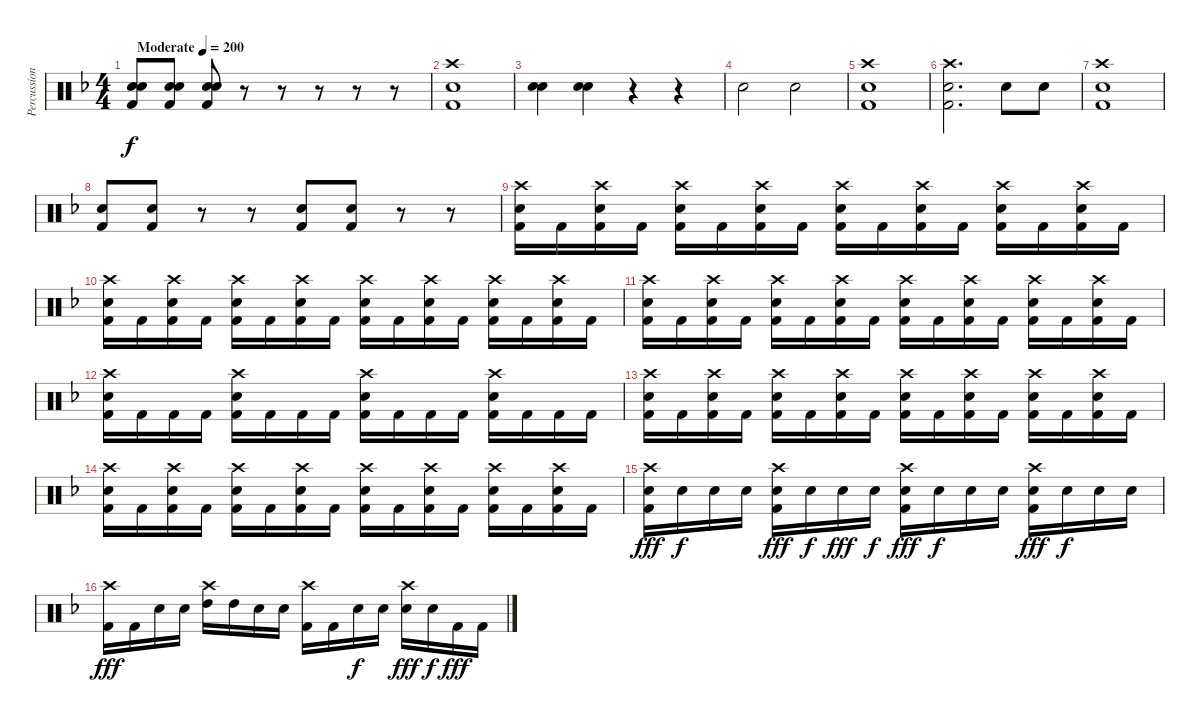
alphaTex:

\track ("Percussion" "Percussion") {instrument percussion}
\staff {score}
\articulation defaults
\ts (4 4)
\tempo (200 "Moderate")
\clef neutral
\ks f
("Electric Snare (hit)" "Electric Snare (hit)" "Kick (hit) 2").8{dy f} ("Electric Snare (hit)" "Electric Snare (hit)" "Kick (hit) 2").8 ("Electric Snare (hit)" "Electric Snare (hit)" "Kick (hit) 2").8 r.8 r.8 r.8 r.8 r.8 |
("Crash high (hit)" "Kick (hit) 2" "Electric Snare (hit)").1 |
("Electric Snare (hit)" "Electric Snare (hit)").4 ("Electric Snare (hit)" "Electric Snare (hit)").4 r.4 r.4 |
"Electric Snare (hit)".2 "Electric Snare (hit)".2 |
("Crash high (hit)" "Electric Snare (hit)" "Kick (hit) 2").1 |
("Crash high (hit)" "Electric Snare (hit)" "Kick (hit) 2").2{d} "Electric Snare (hit)".8 "Electric Snare (hit)".8 |
("Crash high (hit)" "Electric Snare (hit)" "Kick (hit) 2").1 |
("Electric Snare (hit)" "Kick (hit) 2").8 ("Electric Snare (hit)" "Kick (hit) 2").8 r.8 r.8 ("Electric Snare (hit)" "Kick (hit) 2").8 ("Electric Snare (hit)" "Kick (hit) 2").8 r.8 r.8 |
("Crash high (hit)" "Electric Snare (hit)" "Kick (hit) 2").16 "Kick (hit) 2".16 ("Crash high (hit)" "Electric Snare (hit)" "Kick (hit) 2").16 "Kick (hit) 2".16 ("Crash high (hit)" "Electric Snare (hit)" "Kick (hit) 2").16 "Kick (hit) 2".16 ("Crash high (hit)" "Electric Snare (hit)" "Kick (hit) 2").16 "Kick (hit) 2".16 ("Crash high (hit)" "Electric Snare (hit)" "Kick (hit) 2").16 "Kick (hit) 2".16 ("Crash high (hit)" "Electric Snare (hit)" "Kick (hit) 2").16 "Kick (hit) 2".16 ("Crash high (hit)" "Electric Snare (hit)" "Kick (hit) 2").16 "Kick (hit) 2".16 ("Crash high (hit)" "Electric Snare (hit)" "Kick (hit) 2").16 "Kick (hit) 2".16 |
("Crash high (hit)" "Electric Snare (hit)" "Kick (hit) 2").16 "Kick (hit) 2".16 ("Crash high (hit)" "Electric Snare (hit)" "Kick (hit) 2").16 "Kick (hit) 2".16 ("Crash high (hit)" "Electric Snare (hit)" "Kick (hit) 2").16 "Kick (hit) 2".16 ("Crash high (hit)" "Electric Snare (hit)" "Kick (hit) 2").16 "Kick (hit) 2".16 ("Crash high (hit)" "Electric Snare (hit)" "Kick (hit) 2").16 "Kick (hit) 2".16 ("Crash high (hit)" "Electric Snare (hit)" "Kick (hit) 2").16 "Kick (hit) 2".16 ("Crash high (hit)" "Electric Snare (hit)" "Kick (hit) 2").16 "Kick (hit) 2".16 ("Crash high (hit)" "Electric Snare (hit)" "Kick (hit) 2").16 "Kick (hit) 2".16 |
("Crash high (hit)" "Electric Snare (hit)" "Kick (hit) 2").16 "Kick (hit) 2".16 ("Crash high (hit)" "Electric Snare (hit)" "Kick (hit) 2").16 "Kick (hit) 2".16 ("Crash high (hit)" "Electric Snare (hit)" "Kick (hit) 2").16 "Kick (hit) 2".16 ("Crash high (hit)" "Electric Snare (hit)" "Kick (hit) 2").16 "Kick (hit) 2".16 ("Crash high (hit)" "Electric Snare (hit)" "Kick (hit) 2").16 "Kick (hit) 2".16 ("Crash high (hit)" "Electric Snare (hit)" "Kick (hit) 2").16 "Kick (hit) 2".16 ("Crash high (hit)" "Electric Snare (hit)" "Kick (hit) 2").16 "Kick (hit) 2".16 ("Crash high (hit)" "Electric Snare (hit)" "Kick (hit) 2").16 "Kick (hit) 2".16 |
("Crash high (hit)" "Electric Snare (hit)" "Kick (hit) 2").16 "Kick (hit) 2".16 "Kick (hit) 2".16 "Kick (hit) 2".16 ("Crash high (hit)" "Electric Snare (hit)" "Kick (hit) 2").16 "Kick (hit) 2".16 "Kick (hit) 2".16 "Kick (hit) 2".16 ("Crash high (hit)" "Electric Snare (hit)" "Kick (hit) 2").16 "Kick (hit) 2".16 "Kick (hit) 2".16 "Kick (hit) 2".16 ("Crash high (hit)" "Electric Snare (hit)" "Kick (hit) 2").16 "Kick (hit) 2".16 "Kick (hit) 2".16 "Kick (hit) 2".16 |
("Crash high (hit)" "Electric Snare (hit)" "Kick (hit) 2").16 "Kick (hit) 2".16 ("Crash high (hit)" "Electric Snare (hit)" "Kick (hit) 2").16 "Kick (hit) 2".16 ("Crash high (hit)" "Electric Snare (hit)" "Kick (hit) 2").16 "Kick (hit) 2".16 ("Crash high (hit)" "Electric Snare (hit)" "Kick (hit) 2").16 "Kick (hit) 2".16 ("Crash high (hit)" "Electric Snare (hit)" "Kick (hit) 2").16 "Kick (hit) 2".16 ("Crash high (hit)" "Electric Snare (hit)" "Kick (hit) 2").16 "Kick (hit) 2".16 ("Crash high (hit)" "Electric Snare (hit)" "Kick (hit) 2").16 "Kick (hit) 2".16 ("Crash high (hit)" "Electric Snare (hit)" "Kick (hit) 2").16 "Kick (hit) 2".16 |
("Crash high (hit)" "Electric Snare (hit)" "Kick (hit) 2").16 "Kick (hit) 2".16 ("Crash high (hit)" "Electric Snare (hit)" "Kick (hit) 2").16 "Kick (hit) 2".16 ("Crash high (hit)" "Electric Snare (hit)" "Kick (hit) 2").16 "Kick (hit) 2".16 ("Crash high (hit)" "Electric Snare (hit)" "Kick (hit) 2").16 "Kick (hit) 2".16 ("Crash high (hit)" "Electric Snare (hit)" "Kick (hit) 2").16 "Kick (hit) 2".16 ("Crash high (hit)" "Electric Snare (hit)" "Kick (hit) 2").16 "Kick (hit) 2".16 ("Crash high (hit)" "Electric Snare (hit)" "Kick (hit) 2").16 "Kick (hit) 2".16 ("Crash high (hit)" "Electric Snare (hit)" "Kick (hit) 2").16 "Kick (hit) 2".16 |
("Crash high (hit)" "Electric Snare (hit)" "Kick (hit) 2").16{dy fff} "Electric Snare (hit)".16{dy f} "Electric Snare (hit)".16 "Electric Snare (hit)".16 ("Crash high (hit)" "Electric Snare (hit)" "Kick (hit) 2").16{dy fff} "Electric Snare (hit)".16{dy f} "Electric Snare (hit)".16{dy fff} "Electric Snare (hit)".16{dy f} ("Crash high (hit)" "Electric Snare (hit)" "Kick (hit) 2").16{dy fff} "Electric Snare (hit)".16{dy f} "Electric Snare (hit)".16 "Electric Snare (hit)".16 ("Crash high (hit)" "Electric Snare (hit)" "Kick (hit) 2").16{dy fff} "Electric Snare (hit)".16{dy f} "Electric Snare (hit)".16 "Electric Snare (hit)".16 |
("Crash high (hit)" "Kick (hit) 2").16{dy fff} "Kick (hit) 2".16 "Electric Snare (hit)".16 "Electric Snare (hit)".16 ("Crash high (hit)" "High Tom (hit)").16 "High Tom (hit)".16 "Electric Snare (hit)".16 "Electric Snare (hit)".16 ("Crash high (hit)" "Kick (hit) 2").16 "Kick (hit) 2".16 "Electric Snare (hit)".16{dy f} "Electric Snare (hit)".16 ("Crash high (hit)" "Electric Snare (hit)").16{dy fff} "Electric Snare (hit)".16{dy f} "Kick (hit) 2".16{dy fff} "Kick (hit) 2".16
